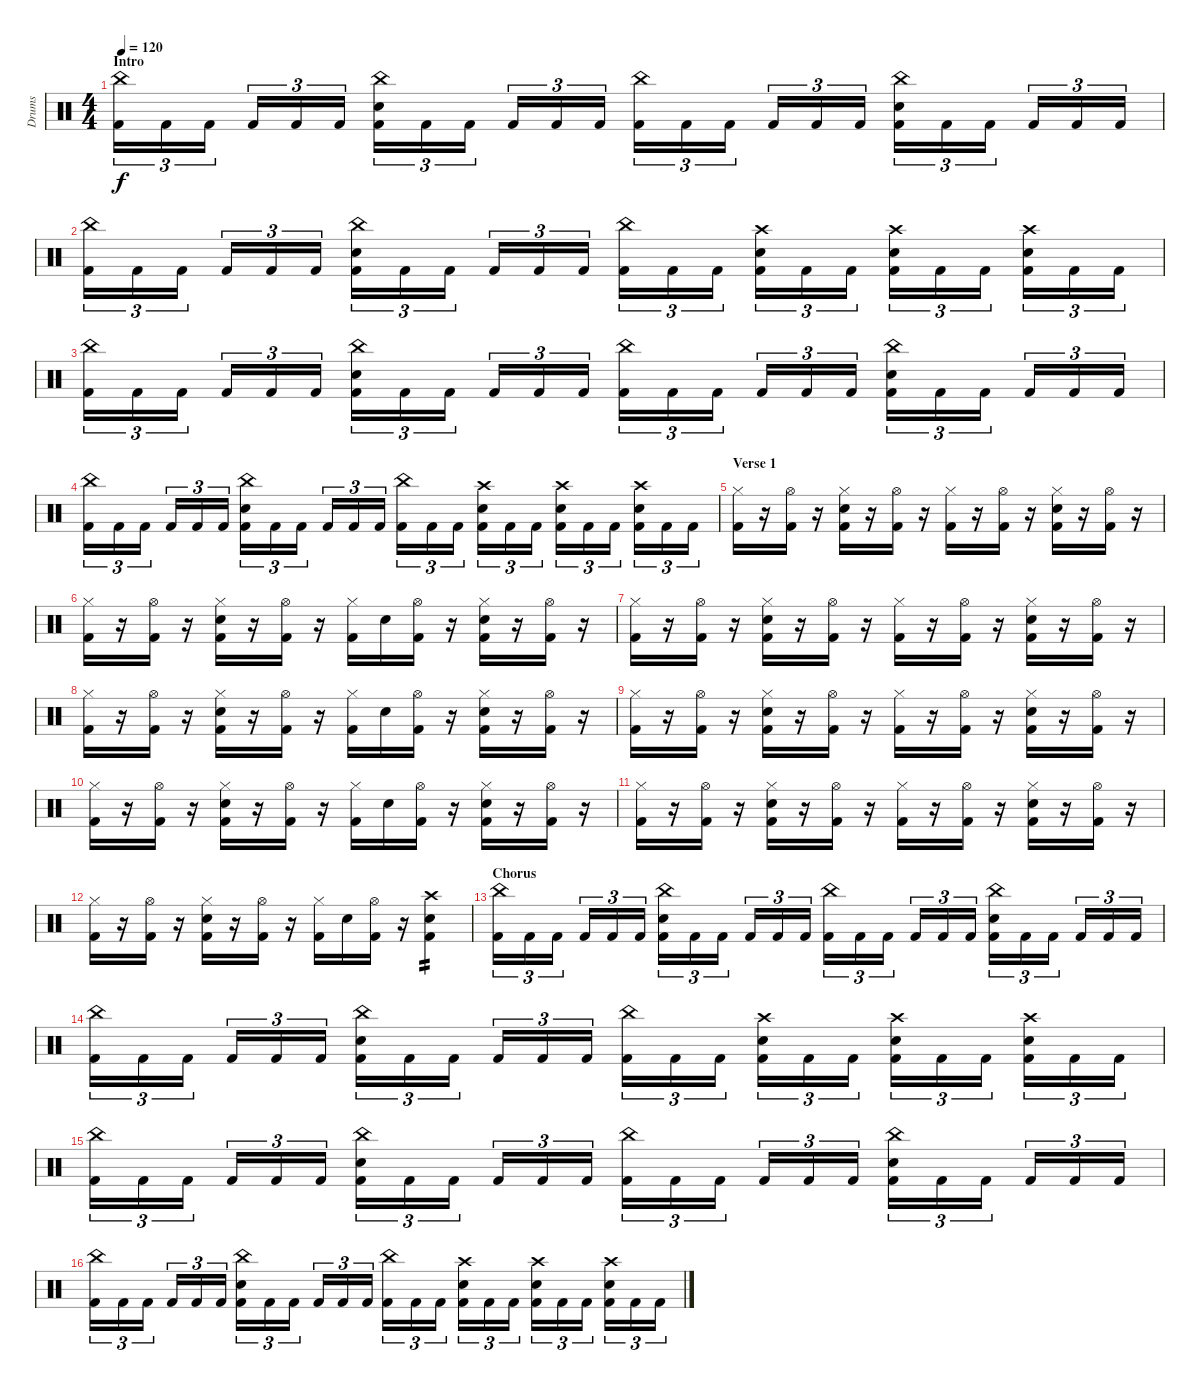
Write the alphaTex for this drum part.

\track ("Drums" "Drums") {instrument percussion}
\staff {score}
\articulation defaults
\ts (4 4)
\section ("" "Intro")
\tempo 120
\clef neutral
\ks c
("China (hit)" "Kick (hit) 2").16{tu (3 2) dy f} "Kick (hit) 2".16{tu (3 2)} "Kick (hit) 2".16{tu (3 2)} "Kick (hit) 2".16{tu (3 2)} "Kick (hit) 2".16{tu (3 2)} "Kick (hit) 2".16{tu (3 2)} ("China (hit)" "Electric Snare (hit)" "Kick (hit) 2").16{tu (3 2)} "Kick (hit) 2".16{tu (3 2)} "Kick (hit) 2".16{tu (3 2)} "Kick (hit) 2".16{tu (3 2)} "Kick (hit) 2".16{tu (3 2)} "Kick (hit) 2".16{tu (3 2)} ("China (hit)" "Kick (hit) 2").16{tu (3 2)} "Kick (hit) 2".16{tu (3 2)} "Kick (hit) 2".16{tu (3 2)} "Kick (hit) 2".16{tu (3 2)} "Kick (hit) 2".16{tu (3 2)} "Kick (hit) 2".16{tu (3 2)} ("China (hit)" "Electric Snare (hit)" "Kick (hit) 2").16{tu (3 2)} "Kick (hit) 2".16{tu (3 2)} "Kick (hit) 2".16{tu (3 2)} "Kick (hit) 2".16{tu (3 2)} "Kick (hit) 2".16{tu (3 2)} "Kick (hit) 2".16{tu (3 2)} |
("China (hit)" "Kick (hit) 2").16{tu (3 2)} "Kick (hit) 2".16{tu (3 2)} "Kick (hit) 2".16{tu (3 2)} "Kick (hit) 2".16{tu (3 2)} "Kick (hit) 2".16{tu (3 2)} "Kick (hit) 2".16{tu (3 2)} ("China (hit)" "Electric Snare (hit)" "Kick (hit) 2").16{tu (3 2)} "Kick (hit) 2".16{tu (3 2)} "Kick (hit) 2".16{tu (3 2)} "Kick (hit) 2".16{tu (3 2)} "Kick (hit) 2".16{tu (3 2)} "Kick (hit) 2".16{tu (3 2)} ("China (hit)" "Kick (hit) 2").16{tu (3 2)} "Kick (hit) 2".16{tu (3 2)} "Kick (hit) 2".16{tu (3 2)} ("Crash high (hit)" "Electric Snare (hit)" "Kick (hit) 2").16{tu (3 2)} "Kick (hit) 2".16{tu (3 2)} "Kick (hit) 2".16{tu (3 2)} ("Crash high (hit)" "Electric Snare (hit)" "Kick (hit) 2").16{tu (3 2)} "Kick (hit) 2".16{tu (3 2)} "Kick (hit) 2".16{tu (3 2)} ("Crash high (hit)" "Electric Snare (hit)" "Kick (hit) 2").16{tu (3 2)} "Kick (hit) 2".16{tu (3 2)} "Kick (hit) 2".16{tu (3 2)} |
("China (hit)" "Kick (hit) 2").16{tu (3 2)} "Kick (hit) 2".16{tu (3 2)} "Kick (hit) 2".16{tu (3 2)} "Kick (hit) 2".16{tu (3 2)} "Kick (hit) 2".16{tu (3 2)} "Kick (hit) 2".16{tu (3 2)} ("China (hit)" "Electric Snare (hit)" "Kick (hit) 2").16{tu (3 2)} "Kick (hit) 2".16{tu (3 2)} "Kick (hit) 2".16{tu (3 2)} "Kick (hit) 2".16{tu (3 2)} "Kick (hit) 2".16{tu (3 2)} "Kick (hit) 2".16{tu (3 2)} ("China (hit)" "Kick (hit) 2").16{tu (3 2)} "Kick (hit) 2".16{tu (3 2)} "Kick (hit) 2".16{tu (3 2)} "Kick (hit) 2".16{tu (3 2)} "Kick (hit) 2".16{tu (3 2)} "Kick (hit) 2".16{tu (3 2)} ("China (hit)" "Electric Snare (hit)" "Kick (hit) 2").16{tu (3 2)} "Kick (hit) 2".16{tu (3 2)} "Kick (hit) 2".16{tu (3 2)} "Kick (hit) 2".16{tu (3 2)} "Kick (hit) 2".16{tu (3 2)} "Kick (hit) 2".16{tu (3 2)} |
("China (hit)" "Kick (hit) 2").16{tu (3 2)} "Kick (hit) 2".16{tu (3 2)} "Kick (hit) 2".16{tu (3 2)} "Kick (hit) 2".16{tu (3 2)} "Kick (hit) 2".16{tu (3 2)} "Kick (hit) 2".16{tu (3 2)} ("China (hit)" "Electric Snare (hit)" "Kick (hit) 2").16{tu (3 2)} "Kick (hit) 2".16{tu (3 2)} "Kick (hit) 2".16{tu (3 2)} "Kick (hit) 2".16{tu (3 2)} "Kick (hit) 2".16{tu (3 2)} "Kick (hit) 2".16{tu (3 2)} ("China (hit)" "Kick (hit) 2").16{tu (3 2)} "Kick (hit) 2".16{tu (3 2)} "Kick (hit) 2".16{tu (3 2)} ("Crash high (hit)" "Electric Snare (hit)" "Kick (hit) 2").16{tu (3 2)} "Kick (hit) 2".16{tu (3 2)} "Kick (hit) 2".16{tu (3 2)} ("Crash high (hit)" "Electric Snare (hit)" "Kick (hit) 2").16{tu (3 2)} "Kick (hit) 2".16{tu (3 2)} "Kick (hit) 2".16{tu (3 2)} ("Crash high (hit)" "Electric Snare (hit)" "Kick (hit) 2").16{tu (3 2)} "Kick (hit) 2".16{tu (3 2)} "Kick (hit) 2".16{tu (3 2)} |
\section ("" "Verse 1")
("Hi-Hat (closed)" "Kick (hit) 2").16 r.16 ("Hi-Hat (open)" "Kick (hit) 2").16 r.16 ("Hi-Hat (closed)" "Electric Snare (hit)" "Kick (hit) 2").16 r.16 ("Hi-Hat (open)" "Kick (hit) 2").16 r.16 ("Hi-Hat (closed)" "Kick (hit) 2").16 r.16 ("Hi-Hat (open)" "Kick (hit) 2").16 r.16 ("Hi-Hat (closed)" "Electric Snare (hit)" "Kick (hit) 2").16 r.16 ("Hi-Hat (open)" "Kick (hit) 2").16 r.16 |
("Hi-Hat (closed)" "Kick (hit) 2").16 r.16 ("Hi-Hat (open)" "Kick (hit) 2").16 r.16 ("Hi-Hat (closed)" "Electric Snare (hit)" "Kick (hit) 2").16 r.16 ("Hi-Hat (open)" "Kick (hit) 2").16 r.16 ("Hi-Hat (closed)" "Kick (hit) 2").16 "Electric Snare (hit)".16 ("Hi-Hat (open)" "Kick (hit) 2").16 r.16 ("Hi-Hat (closed)" "Electric Snare (hit)" "Kick (hit) 2").16 r.16 ("Hi-Hat (open)" "Kick (hit) 2").16 r.16 |
("Hi-Hat (closed)" "Kick (hit) 2").16 r.16 ("Hi-Hat (open)" "Kick (hit) 2").16 r.16 ("Hi-Hat (closed)" "Electric Snare (hit)" "Kick (hit) 2").16 r.16 ("Hi-Hat (open)" "Kick (hit) 2").16 r.16 ("Hi-Hat (closed)" "Kick (hit) 2").16 r.16 ("Hi-Hat (open)" "Kick (hit) 2").16 r.16 ("Hi-Hat (closed)" "Electric Snare (hit)" "Kick (hit) 2").16 r.16 ("Hi-Hat (open)" "Kick (hit) 2").16 r.16 |
("Hi-Hat (closed)" "Kick (hit) 2").16 r.16 ("Hi-Hat (open)" "Kick (hit) 2").16 r.16 ("Hi-Hat (closed)" "Electric Snare (hit)" "Kick (hit) 2").16 r.16 ("Hi-Hat (open)" "Kick (hit) 2").16 r.16 ("Hi-Hat (closed)" "Kick (hit) 2").16 "Electric Snare (hit)".16 ("Hi-Hat (open)" "Kick (hit) 2").16 r.16 ("Hi-Hat (closed)" "Electric Snare (hit)" "Kick (hit) 2").16 r.16 ("Hi-Hat (open)" "Kick (hit) 2").16 r.16 |
("Hi-Hat (closed)" "Kick (hit) 2").16 r.16 ("Hi-Hat (open)" "Kick (hit) 2").16 r.16 ("Hi-Hat (closed)" "Electric Snare (hit)" "Kick (hit) 2").16 r.16 ("Hi-Hat (open)" "Kick (hit) 2").16 r.16 ("Hi-Hat (closed)" "Kick (hit) 2").16 r.16 ("Hi-Hat (open)" "Kick (hit) 2").16 r.16 ("Hi-Hat (closed)" "Electric Snare (hit)" "Kick (hit) 2").16 r.16 ("Hi-Hat (open)" "Kick (hit) 2").16 r.16 |
("Hi-Hat (closed)" "Kick (hit) 2").16 r.16 ("Hi-Hat (open)" "Kick (hit) 2").16 r.16 ("Hi-Hat (closed)" "Electric Snare (hit)" "Kick (hit) 2").16 r.16 ("Hi-Hat (open)" "Kick (hit) 2").16 r.16 ("Hi-Hat (closed)" "Kick (hit) 2").16 "Electric Snare (hit)".16 ("Hi-Hat (open)" "Kick (hit) 2").16 r.16 ("Hi-Hat (closed)" "Electric Snare (hit)" "Kick (hit) 2").16 r.16 ("Hi-Hat (open)" "Kick (hit) 2").16 r.16 |
("Hi-Hat (closed)" "Kick (hit) 2").16 r.16 ("Hi-Hat (open)" "Kick (hit) 2").16 r.16 ("Hi-Hat (closed)" "Electric Snare (hit)" "Kick (hit) 2").16 r.16 ("Hi-Hat (open)" "Kick (hit) 2").16 r.16 ("Hi-Hat (closed)" "Kick (hit) 2").16 r.16 ("Hi-Hat (open)" "Kick (hit) 2").16 r.16 ("Hi-Hat (closed)" "Electric Snare (hit)" "Kick (hit) 2").16 r.16 ("Hi-Hat (open)" "Kick (hit) 2").16 r.16 |
("Hi-Hat (closed)" "Kick (hit) 2").16 r.16 ("Hi-Hat (open)" "Kick (hit) 2").16 r.16 ("Hi-Hat (closed)" "Electric Snare (hit)" "Kick (hit) 2").16 r.16 ("Hi-Hat (open)" "Kick (hit) 2").16 r.16 ("Hi-Hat (closed)" "Kick (hit) 2").16 "Electric Snare (hit)".16 ("Hi-Hat (open)" "Kick (hit) 2").16 r.16 ("Crash high (hit)" "Electric Snare (hit)" "Kick (hit) 2").4{tp 2} |
\section ("" "Chorus")
("China (hit)" "Kick (hit) 2").16{tu (3 2)} "Kick (hit) 2".16{tu (3 2)} "Kick (hit) 2".16{tu (3 2)} "Kick (hit) 2".16{tu (3 2)} "Kick (hit) 2".16{tu (3 2)} "Kick (hit) 2".16{tu (3 2)} ("China (hit)" "Electric Snare (hit)" "Kick (hit) 2").16{tu (3 2)} "Kick (hit) 2".16{tu (3 2)} "Kick (hit) 2".16{tu (3 2)} "Kick (hit) 2".16{tu (3 2)} "Kick (hit) 2".16{tu (3 2)} "Kick (hit) 2".16{tu (3 2)} ("China (hit)" "Kick (hit) 2").16{tu (3 2)} "Kick (hit) 2".16{tu (3 2)} "Kick (hit) 2".16{tu (3 2)} "Kick (hit) 2".16{tu (3 2)} "Kick (hit) 2".16{tu (3 2)} "Kick (hit) 2".16{tu (3 2)} ("China (hit)" "Electric Snare (hit)" "Kick (hit) 2").16{tu (3 2)} "Kick (hit) 2".16{tu (3 2)} "Kick (hit) 2".16{tu (3 2)} "Kick (hit) 2".16{tu (3 2)} "Kick (hit) 2".16{tu (3 2)} "Kick (hit) 2".16{tu (3 2)} |
("China (hit)" "Kick (hit) 2").16{tu (3 2)} "Kick (hit) 2".16{tu (3 2)} "Kick (hit) 2".16{tu (3 2)} "Kick (hit) 2".16{tu (3 2)} "Kick (hit) 2".16{tu (3 2)} "Kick (hit) 2".16{tu (3 2)} ("China (hit)" "Electric Snare (hit)" "Kick (hit) 2").16{tu (3 2)} "Kick (hit) 2".16{tu (3 2)} "Kick (hit) 2".16{tu (3 2)} "Kick (hit) 2".16{tu (3 2)} "Kick (hit) 2".16{tu (3 2)} "Kick (hit) 2".16{tu (3 2)} ("China (hit)" "Kick (hit) 2").16{tu (3 2)} "Kick (hit) 2".16{tu (3 2)} "Kick (hit) 2".16{tu (3 2)} ("Crash high (hit)" "Electric Snare (hit)" "Kick (hit) 2").16{tu (3 2)} "Kick (hit) 2".16{tu (3 2)} "Kick (hit) 2".16{tu (3 2)} ("Crash high (hit)" "Electric Snare (hit)" "Kick (hit) 2").16{tu (3 2)} "Kick (hit) 2".16{tu (3 2)} "Kick (hit) 2".16{tu (3 2)} ("Crash high (hit)" "Electric Snare (hit)" "Kick (hit) 2").16{tu (3 2)} "Kick (hit) 2".16{tu (3 2)} "Kick (hit) 2".16{tu (3 2)} |
("China (hit)" "Kick (hit) 2").16{tu (3 2)} "Kick (hit) 2".16{tu (3 2)} "Kick (hit) 2".16{tu (3 2)} "Kick (hit) 2".16{tu (3 2)} "Kick (hit) 2".16{tu (3 2)} "Kick (hit) 2".16{tu (3 2)} ("China (hit)" "Electric Snare (hit)" "Kick (hit) 2").16{tu (3 2)} "Kick (hit) 2".16{tu (3 2)} "Kick (hit) 2".16{tu (3 2)} "Kick (hit) 2".16{tu (3 2)} "Kick (hit) 2".16{tu (3 2)} "Kick (hit) 2".16{tu (3 2)} ("China (hit)" "Kick (hit) 2").16{tu (3 2)} "Kick (hit) 2".16{tu (3 2)} "Kick (hit) 2".16{tu (3 2)} "Kick (hit) 2".16{tu (3 2)} "Kick (hit) 2".16{tu (3 2)} "Kick (hit) 2".16{tu (3 2)} ("China (hit)" "Electric Snare (hit)" "Kick (hit) 2").16{tu (3 2)} "Kick (hit) 2".16{tu (3 2)} "Kick (hit) 2".16{tu (3 2)} "Kick (hit) 2".16{tu (3 2)} "Kick (hit) 2".16{tu (3 2)} "Kick (hit) 2".16{tu (3 2)} |
("China (hit)" "Kick (hit) 2").16{tu (3 2)} "Kick (hit) 2".16{tu (3 2)} "Kick (hit) 2".16{tu (3 2)} "Kick (hit) 2".16{tu (3 2)} "Kick (hit) 2".16{tu (3 2)} "Kick (hit) 2".16{tu (3 2)} ("China (hit)" "Electric Snare (hit)" "Kick (hit) 2").16{tu (3 2)} "Kick (hit) 2".16{tu (3 2)} "Kick (hit) 2".16{tu (3 2)} "Kick (hit) 2".16{tu (3 2)} "Kick (hit) 2".16{tu (3 2)} "Kick (hit) 2".16{tu (3 2)} ("China (hit)" "Kick (hit) 2").16{tu (3 2)} "Kick (hit) 2".16{tu (3 2)} "Kick (hit) 2".16{tu (3 2)} ("Crash high (hit)" "Electric Snare (hit)" "Kick (hit) 2").16{tu (3 2)} "Kick (hit) 2".16{tu (3 2)} "Kick (hit) 2".16{tu (3 2)} ("Crash high (hit)" "Electric Snare (hit)" "Kick (hit) 2").16{tu (3 2)} "Kick (hit) 2".16{tu (3 2)} "Kick (hit) 2".16{tu (3 2)} ("Crash high (hit)" "Electric Snare (hit)" "Kick (hit) 2").16{tu (3 2)} "Kick (hit) 2".16{tu (3 2)} "Kick (hit) 2".16{tu (3 2)}
